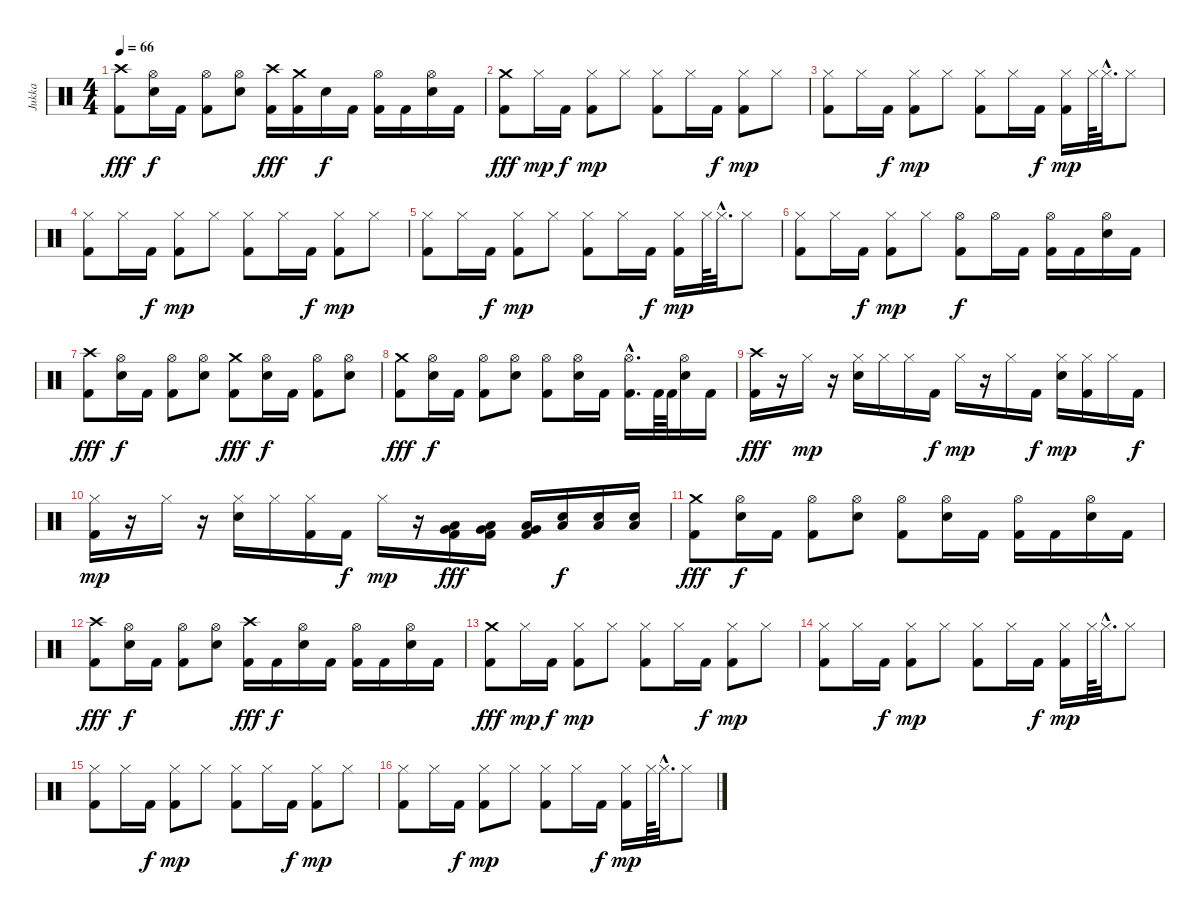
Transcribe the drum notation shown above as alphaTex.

\track ("Jukka" "Jukka") {instrument percussion}
\staff {score}
\articulation defaults
\ts (4 4)
\tempo 66
\clef neutral
\ks c
("Kick (hit) 2" "Crash high (hit)").8{dy fff} ("Electric Snare (hit)" "Hi-Hat (open)").16{dy f} "Kick (hit) 2".16 ("Kick (hit) 2" "Hi-Hat (open)").8 ("Electric Snare (hit)" "Hi-Hat (open)").8 ("Kick (hit) 2" "Crash high (hit)").16{dy fff} ("Kick (hit) 2" "Crash medium (hit)").16 "Electric Snare (hit)".16{dy f} "Kick (hit) 2".16 ("Kick (hit) 2" "Hi-Hat (open)").16 "Kick (hit) 2".16 ("Electric Snare (hit)" "Hi-Hat (open)").16 "Kick (hit) 2".16 |
("Kick (hit) 2" "Crash medium (hit)").8{dy fff} "Hi-Hat (closed)".16{dy mp} "Kick (hit) 2".16{dy f} ("Kick (hit) 2" "Hi-Hat (closed)").8{dy mp} "Hi-Hat (closed)".8 ("Kick (hit) 2" "Hi-Hat (closed)").8 "Hi-Hat (closed)".16 "Kick (hit) 2".16{dy f} ("Kick (hit) 2" "Hi-Hat (closed)").8{dy mp} "Hi-Hat (closed)".8 |
("Kick (hit) 2" "Hi-Hat (closed)").8 "Hi-Hat (closed)".16 "Kick (hit) 2".16{dy f} ("Kick (hit) 2" "Hi-Hat (closed)").8{dy mp} "Hi-Hat (closed)".8 ("Kick (hit) 2" "Hi-Hat (closed)").8 "Hi-Hat (closed)".16 "Kick (hit) 2".16{dy f} ("Kick (hit) 2" "Hi-Hat (closed)").16{dy mp} "Hi-Hat (closed)".64 "Hi-Hat (closed)"{hac}.32{d} "Hi-Hat (closed)".8 |
("Kick (hit) 2" "Hi-Hat (closed)").8 "Hi-Hat (closed)".16 "Kick (hit) 2".16{dy f} ("Kick (hit) 2" "Hi-Hat (closed)").8{dy mp} "Hi-Hat (closed)".8 ("Kick (hit) 2" "Hi-Hat (closed)").8 "Hi-Hat (closed)".16 "Kick (hit) 2".16{dy f} ("Kick (hit) 2" "Hi-Hat (closed)").8{dy mp} "Hi-Hat (closed)".8 |
("Kick (hit) 2" "Hi-Hat (closed)").8 "Hi-Hat (closed)".16 "Kick (hit) 2".16{dy f} ("Kick (hit) 2" "Hi-Hat (closed)").8{dy mp} "Hi-Hat (closed)".8 ("Kick (hit) 2" "Hi-Hat (closed)").8 "Hi-Hat (closed)".16 "Kick (hit) 2".16{dy f} ("Kick (hit) 2" "Hi-Hat (closed)").16{dy mp} "Hi-Hat (closed)".64 "Hi-Hat (closed)"{hac}.32{d} "Hi-Hat (closed)".8 |
("Kick (hit) 2" "Hi-Hat (closed)").8 "Hi-Hat (closed)".16 "Kick (hit) 2".16{dy f} ("Kick (hit) 2" "Hi-Hat (closed)").8{dy mp} "Hi-Hat (closed)".8 ("Kick (hit) 2" "Hi-Hat (open)").8{dy f} "Hi-Hat (open)".16 "Kick (hit) 2".16 ("Kick (hit) 2" "Hi-Hat (open)").16 "Kick (hit) 2".16 ("Electric Snare (hit)" "Hi-Hat (open)").16 "Kick (hit) 2".16 |
("Kick (hit) 2" "Crash high (hit)").8{dy fff} ("Electric Snare (hit)" "Hi-Hat (open)").16{dy f} "Kick (hit) 2".16 ("Kick (hit) 2" "Hi-Hat (open)").8 ("Electric Snare (hit)" "Hi-Hat (open)").8 ("Kick (hit) 2" "Crash medium (hit)").8{dy fff} ("Electric Snare (hit)" "Hi-Hat (open)").16{dy f} "Kick (hit) 2".16 ("Kick (hit) 2" "Hi-Hat (open)").8 ("Electric Snare (hit)" "Hi-Hat (open)").8 |
("Kick (hit) 2" "Crash medium (hit)").8{dy fff} ("Electric Snare (hit)" "Hi-Hat (open)").16{dy f} "Kick (hit) 2".16 ("Kick (hit) 2" "Hi-Hat (open)").8 ("Electric Snare (hit)" "Hi-Hat (open)").8 ("Kick (hit) 2" "Hi-Hat (open)").8 ("Electric Snare (hit)" "Hi-Hat (open)").16 "Kick (hit) 2".16 ("Kick (hit) 2"{hac} "Hi-Hat (open)"{hac}).16{d} "Kick (hit) 2".64 "Kick (hit) 2".64 ("Electric Snare (hit)" "Hi-Hat (open)").16 "Kick (hit) 2".16 |
("Kick (hit) 2" "Crash high (hit)").16{dy fff} r.16 "Hi-Hat (closed)".16{dy mp} r.16 ("Electric Snare (hit)" "Hi-Hat (closed)").16 "Hi-Hat (closed)".16 "Hi-Hat (closed)".16 "Kick (hit) 2".16{dy f} "Hi-Hat (closed)".16{dy mp} r.16 "Hi-Hat (closed)".16 "Kick (hit) 2".16{dy f} ("Electric Snare (hit)" "Hi-Hat (closed)").16{dy mp} ("Kick (hit) 2" "Hi-Hat (closed)").16 "Hi-Hat (closed)".16 "Kick (hit) 2".16{dy f} |
("Kick (hit) 2" "Hi-Hat (closed)").16{dy mp} r.16 "Hi-Hat (closed)".16 r.16 ("Electric Snare (hit)" "Hi-Hat (closed)").16 "Hi-Hat (closed)".16 ("Kick (hit) 2" "Hi-Hat (closed)").16 "Kick (hit) 2".16{dy f} "Hi-Hat (closed)".16{dy mp} r.16 ("Kick (hit) 2" "Very Low Tom (hit)" "Low Floor Tom (hit)").16{dy fff} ("Kick (hit) 2" "Very Low Tom (hit)" "Low Floor Tom (hit)").16 ("Kick (hit) 2" "Very Low Tom (hit)" "Low Floor Tom (hit)").16 ("Electric Snare (hit)" "Low Floor Tom (hit)").16{dy f} ("Electric Snare (hit)" "Low Floor Tom (hit)").16 ("Electric Snare (hit)" "Low Floor Tom (hit)").16 |
("Kick (hit) 2" "Crash medium (hit)").8{dy fff} ("Electric Snare (hit)" "Hi-Hat (open)").16{dy f} "Kick (hit) 2".16 ("Kick (hit) 2" "Hi-Hat (open)").8 ("Electric Snare (hit)" "Hi-Hat (open)").8 ("Kick (hit) 2" "Hi-Hat (open)").8 ("Electric Snare (hit)" "Hi-Hat (open)").16 "Kick (hit) 2".16 ("Kick (hit) 2" "Hi-Hat (open)").16 "Kick (hit) 2".16 ("Electric Snare (hit)" "Hi-Hat (open)").16 "Kick (hit) 2".16 |
("Kick (hit) 2" "Crash high (hit)").8{dy fff} ("Electric Snare (hit)" "Hi-Hat (open)").16{dy f} "Kick (hit) 2".16 ("Kick (hit) 2" "Hi-Hat (open)").8 ("Electric Snare (hit)" "Hi-Hat (open)").8 ("Kick (hit) 2" "Crash high (hit)").16{dy fff} "Kick (hit) 2".16{dy f} ("Electric Snare (hit)" "Hi-Hat (open)").16 "Kick (hit) 2".16 ("Kick (hit) 2" "Hi-Hat (open)").16 "Kick (hit) 2".16 ("Electric Snare (hit)" "Hi-Hat (open)").16 "Kick (hit) 2".16 |
("Kick (hit) 2" "Crash medium (hit)").8{dy fff} "Hi-Hat (closed)".16{dy mp} "Kick (hit) 2".16{dy f} ("Kick (hit) 2" "Hi-Hat (closed)").8{dy mp} "Hi-Hat (closed)".8 ("Kick (hit) 2" "Hi-Hat (closed)").8 "Hi-Hat (closed)".16 "Kick (hit) 2".16{dy f} ("Kick (hit) 2" "Hi-Hat (closed)").8{dy mp} "Hi-Hat (closed)".8 |
("Kick (hit) 2" "Hi-Hat (closed)").8 "Hi-Hat (closed)".16 "Kick (hit) 2".16{dy f} ("Kick (hit) 2" "Hi-Hat (closed)").8{dy mp} "Hi-Hat (closed)".8 ("Kick (hit) 2" "Hi-Hat (closed)").8 "Hi-Hat (closed)".16 "Kick (hit) 2".16{dy f} ("Kick (hit) 2" "Hi-Hat (closed)").16{dy mp} "Hi-Hat (closed)".64 "Hi-Hat (closed)"{hac}.32{d} "Hi-Hat (closed)".8 |
("Kick (hit) 2" "Hi-Hat (closed)").8 "Hi-Hat (closed)".16 "Kick (hit) 2".16{dy f} ("Kick (hit) 2" "Hi-Hat (closed)").8{dy mp} "Hi-Hat (closed)".8 ("Kick (hit) 2" "Hi-Hat (closed)").8 "Hi-Hat (closed)".16 "Kick (hit) 2".16{dy f} ("Kick (hit) 2" "Hi-Hat (closed)").8{dy mp} "Hi-Hat (closed)".8 |
("Kick (hit) 2" "Hi-Hat (closed)").8 "Hi-Hat (closed)".16 "Kick (hit) 2".16{dy f} ("Kick (hit) 2" "Hi-Hat (closed)").8{dy mp} "Hi-Hat (closed)".8 ("Kick (hit) 2" "Hi-Hat (closed)").8 "Hi-Hat (closed)".16 "Kick (hit) 2".16{dy f} ("Kick (hit) 2" "Hi-Hat (closed)").16{dy mp} "Hi-Hat (closed)".64 "Hi-Hat (closed)"{hac}.32{d} "Hi-Hat (closed)".8
